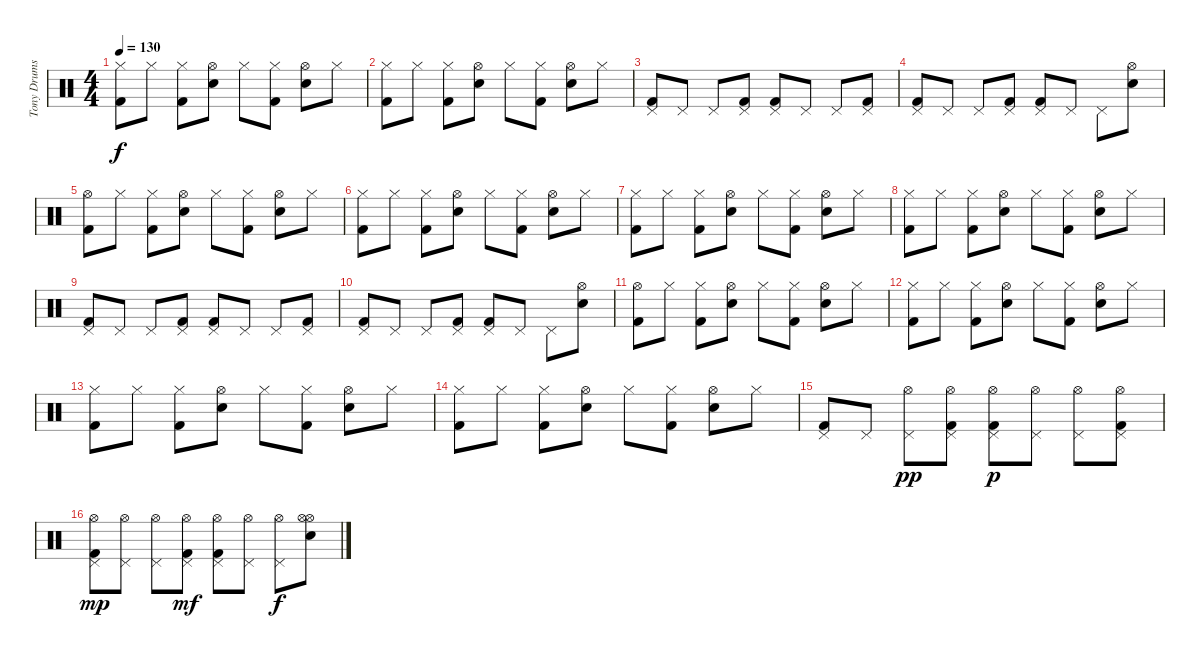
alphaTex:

\track ("Tony Drums" "Tony Drums") {instrument percussion}
\staff {score}
\articulation defaults
\ts (4 4)
\tempo 130
\clef neutral
\ks c
("Hi-Hat (closed)" "Kick (hit) 2").8{dy f} "Hi-Hat (closed)".8 ("Hi-Hat (closed)" "Kick (hit) 2").8 ("Hi-Hat (open)" "Snare (hit) 2").8 "Hi-Hat (closed)".8 ("Hi-Hat (closed)" "Kick (hit) 2").8 ("Hi-Hat (open)" "Snare (hit) 2").8 "Hi-Hat (closed)".8 |
("Hi-Hat (closed)" "Kick (hit) 2").8 "Hi-Hat (closed)".8 ("Hi-Hat (closed)" "Kick (hit) 2").8 ("Hi-Hat (open)" "Snare (hit) 2").8 "Hi-Hat (closed)".8 ("Hi-Hat (closed)" "Kick (hit) 2").8 ("Hi-Hat (open)" "Snare (hit) 2").8 "Hi-Hat (closed)".8 |
("Pedal Hi-Hat (hit)" "Kick (hit) 2").8 "Pedal Hi-Hat (hit)".8 "Pedal Hi-Hat (hit)".8 ("Pedal Hi-Hat (hit)" "Kick (hit) 2").8 ("Pedal Hi-Hat (hit)" "Kick (hit) 2").8 "Pedal Hi-Hat (hit)".8 "Pedal Hi-Hat (hit)".8 ("Pedal Hi-Hat (hit)" "Kick (hit) 2").8 |
("Pedal Hi-Hat (hit)" "Kick (hit) 2").8 "Pedal Hi-Hat (hit)".8 "Pedal Hi-Hat (hit)".8 ("Pedal Hi-Hat (hit)" "Kick (hit) 2").8 ("Pedal Hi-Hat (hit)" "Kick (hit) 2").8 "Pedal Hi-Hat (hit)".8 "Pedal Hi-Hat (hit)".8 ("Hi-Hat (open)" "Snare (hit) 2").8 |
("Hi-Hat (open)" "Kick (hit) 2").8 "Hi-Hat (closed)".8 ("Hi-Hat (closed)" "Kick (hit) 2").8 ("Hi-Hat (open)" "Snare (hit) 2").8 "Hi-Hat (closed)".8 ("Hi-Hat (closed)" "Kick (hit) 2").8 ("Hi-Hat (open)" "Snare (hit) 2").8 "Hi-Hat (closed)".8 |
("Hi-Hat (closed)" "Kick (hit) 2").8 "Hi-Hat (closed)".8 ("Hi-Hat (closed)" "Kick (hit) 2").8 ("Hi-Hat (open)" "Snare (hit) 2").8 "Hi-Hat (closed)".8 ("Hi-Hat (closed)" "Kick (hit) 2").8 ("Hi-Hat (open)" "Snare (hit) 2").8 "Hi-Hat (closed)".8 |
("Hi-Hat (closed)" "Kick (hit) 2").8 "Hi-Hat (closed)".8 ("Hi-Hat (closed)" "Kick (hit) 2").8 ("Hi-Hat (open)" "Snare (hit) 2").8 "Hi-Hat (closed)".8 ("Hi-Hat (closed)" "Kick (hit) 2").8 ("Hi-Hat (open)" "Snare (hit) 2").8 "Hi-Hat (closed)".8 |
("Hi-Hat (closed)" "Kick (hit) 2").8 "Hi-Hat (closed)".8 ("Hi-Hat (closed)" "Kick (hit) 2").8 ("Hi-Hat (open)" "Snare (hit) 2").8 "Hi-Hat (closed)".8 ("Hi-Hat (closed)" "Kick (hit) 2").8 ("Hi-Hat (open)" "Snare (hit) 2").8 "Hi-Hat (closed)".8 |
("Pedal Hi-Hat (hit)" "Kick (hit) 2").8 "Pedal Hi-Hat (hit)".8 "Pedal Hi-Hat (hit)".8 ("Pedal Hi-Hat (hit)" "Kick (hit) 2").8 ("Pedal Hi-Hat (hit)" "Kick (hit) 2").8 "Pedal Hi-Hat (hit)".8 "Pedal Hi-Hat (hit)".8 ("Pedal Hi-Hat (hit)" "Kick (hit) 2").8 |
("Pedal Hi-Hat (hit)" "Kick (hit) 2").8 "Pedal Hi-Hat (hit)".8 "Pedal Hi-Hat (hit)".8 ("Pedal Hi-Hat (hit)" "Kick (hit) 2").8 ("Pedal Hi-Hat (hit)" "Kick (hit) 2").8 "Pedal Hi-Hat (hit)".8 "Pedal Hi-Hat (hit)".8 ("Hi-Hat (open)" "Snare (hit) 2").8 |
("Hi-Hat (open)" "Kick (hit) 2").8 "Hi-Hat (closed)".8 ("Hi-Hat (closed)" "Kick (hit) 2").8 ("Hi-Hat (open)" "Snare (hit) 2").8 "Hi-Hat (closed)".8 ("Hi-Hat (closed)" "Kick (hit) 2").8 ("Hi-Hat (open)" "Snare (hit) 2").8 "Hi-Hat (closed)".8 |
("Hi-Hat (closed)" "Kick (hit) 2").8 "Hi-Hat (closed)".8 ("Hi-Hat (closed)" "Kick (hit) 2").8 ("Hi-Hat (open)" "Snare (hit) 2").8 "Hi-Hat (closed)".8 ("Hi-Hat (closed)" "Kick (hit) 2").8 ("Hi-Hat (open)" "Snare (hit) 2").8 "Hi-Hat (closed)".8 |
("Hi-Hat (closed)" "Kick (hit) 2").8 "Hi-Hat (closed)".8 ("Hi-Hat (closed)" "Kick (hit) 2").8 ("Hi-Hat (open)" "Snare (hit) 2").8 "Hi-Hat (closed)".8 ("Hi-Hat (closed)" "Kick (hit) 2").8 ("Hi-Hat (open)" "Snare (hit) 2").8 "Hi-Hat (closed)".8 |
("Hi-Hat (closed)" "Kick (hit) 2").8 "Hi-Hat (closed)".8 ("Hi-Hat (closed)" "Kick (hit) 2").8 ("Hi-Hat (open)" "Snare (hit) 2").8 "Hi-Hat (closed)".8 ("Hi-Hat (closed)" "Kick (hit) 2").8 ("Hi-Hat (open)" "Snare (hit) 2").8 "Hi-Hat (closed)".8 |
("Pedal Hi-Hat (hit)" "Kick (hit) 2").8 "Pedal Hi-Hat (hit)".8 ("Hi-Hat (open)" "Pedal Hi-Hat (hit)").8{dy pp} ("Hi-Hat (open)" "Pedal Hi-Hat (hit)" "Kick (hit) 2").8 ("Hi-Hat (open)" "Pedal Hi-Hat (hit)" "Kick (hit) 2").8{dy p} ("Hi-Hat (open)" "Pedal Hi-Hat (hit)").8 ("Hi-Hat (open)" "Pedal Hi-Hat (hit)").8 ("Hi-Hat (open)" "Pedal Hi-Hat (hit)" "Kick (hit) 2").8 |
("Hi-Hat (open)" "Pedal Hi-Hat (hit)" "Kick (hit) 2").8{dy mp} ("Hi-Hat (open)" "Pedal Hi-Hat (hit)").8 ("Hi-Hat (open)" "Pedal Hi-Hat (hit)").8 ("Hi-Hat (open)" "Pedal Hi-Hat (hit)" "Kick (hit) 2").8{dy mf} ("Hi-Hat (open)" "Pedal Hi-Hat (hit)" "Kick (hit) 2").8 ("Hi-Hat (open)" "Pedal Hi-Hat (hit)").8 ("Hi-Hat (open)" "Pedal Hi-Hat (hit)").8{dy f} ("Hi-Hat (open)" "Hi-Hat (open)" "Snare (hit) 2").8
